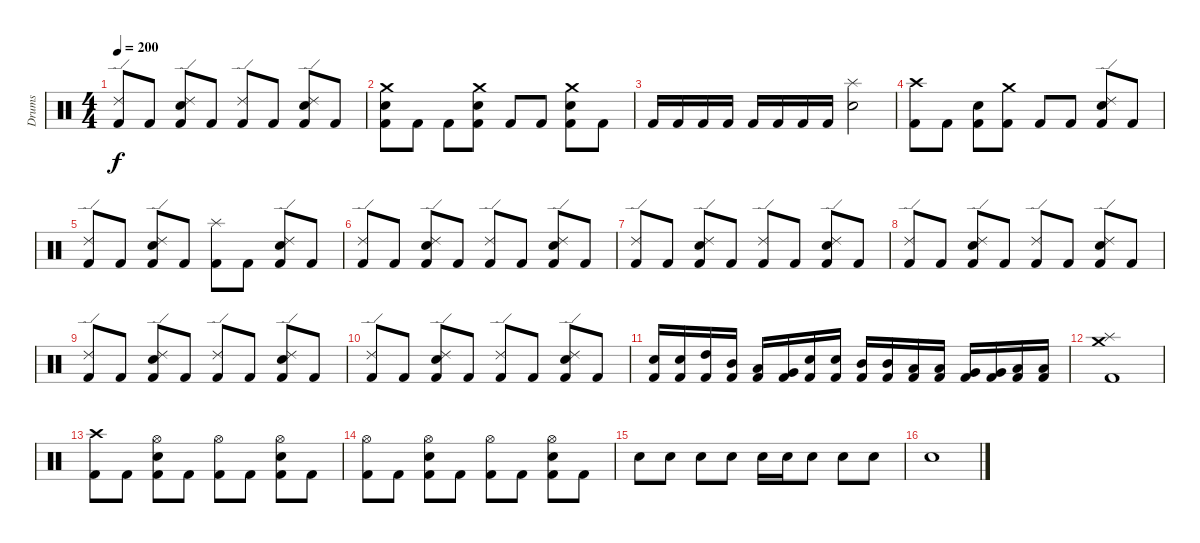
\track ("Drums" "Drums") {instrument percussion}
\staff {score}
\articulation defaults
\ts (4 4)
\tempo 200
\clef neutral
\ks c
("Kick (hit) 2" "Ride (edge) 2").8{dy f} "Kick (hit) 2".8 ("Kick (hit) 2" "Electric Snare (hit)" "Ride (edge) 2").8 "Kick (hit) 2".8 ("Kick (hit) 2" "Ride (edge) 2").8 "Kick (hit) 2".8 ("Kick (hit) 2" "Electric Snare (hit)" "Ride (edge) 2").8 "Kick (hit) 2".8 |
("Kick (hit) 2" "Electric Snare (hit)" "Crash medium (hit)").8 "Kick (hit) 2".8 "Kick (hit) 2".8 ("Kick (hit) 2" "Electric Snare (hit)" "Crash medium (hit)").8 "Kick (hit) 2".8 "Kick (hit) 2".8 ("Kick (hit) 2" "Electric Snare (hit)" "Crash medium (hit)").8 "Kick (hit) 2".8 |
"Kick (hit) 2".16 "Kick (hit) 2".16 "Kick (hit) 2".16 "Kick (hit) 2".16 "Kick (hit) 2".16 "Kick (hit) 2".16 "Kick (hit) 2".16 "Kick (hit) 2".16 ("Electric Snare (hit)" "Splash (hit)").2 |
("Kick (hit) 2" "Crash high (hit)").8 "Kick (hit) 2".8 ("Kick (hit) 2" "Electric Snare (hit)").8 ("Kick (hit) 2" "Crash medium (hit)").8 "Kick (hit) 2".8 "Kick (hit) 2".8 ("Kick (hit) 2" "Electric Snare (hit)" "Ride (edge) 2").8 "Kick (hit) 2".8 |
("Kick (hit) 2" "Ride (edge) 2").8 "Kick (hit) 2".8 ("Kick (hit) 2" "Electric Snare (hit)" "Ride (edge) 2").8 "Kick (hit) 2".8 ("Kick (hit) 2" "Splash (hit)").8 "Kick (hit) 2".8 ("Kick (hit) 2" "Electric Snare (hit)" "Ride (edge) 2").8 "Kick (hit) 2".8 |
("Kick (hit) 2" "Ride (edge) 2").8 "Kick (hit) 2".8 ("Kick (hit) 2" "Electric Snare (hit)" "Ride (edge) 2").8 "Kick (hit) 2".8 ("Kick (hit) 2" "Ride (edge) 2").8 "Kick (hit) 2".8 ("Kick (hit) 2" "Electric Snare (hit)" "Ride (edge) 2").8 "Kick (hit) 2".8 |
\section ("" "")
("Kick (hit) 2" "Ride (edge) 2").8 "Kick (hit) 2".8 ("Kick (hit) 2" "Electric Snare (hit)" "Ride (edge) 2").8 "Kick (hit) 2".8 ("Kick (hit) 2" "Ride (edge) 2").8 "Kick (hit) 2".8 ("Kick (hit) 2" "Electric Snare (hit)" "Ride (edge) 2").8 "Kick (hit) 2".8 |
("Kick (hit) 2" "Ride (edge) 2").8 "Kick (hit) 2".8 ("Kick (hit) 2" "Electric Snare (hit)" "Ride (edge) 2").8 "Kick (hit) 2".8 ("Kick (hit) 2" "Ride (edge) 2").8 "Kick (hit) 2".8 ("Kick (hit) 2" "Electric Snare (hit)" "Ride (edge) 2").8 "Kick (hit) 2".8 |
("Kick (hit) 2" "Ride (edge) 2").8 "Kick (hit) 2".8 ("Kick (hit) 2" "Electric Snare (hit)" "Ride (edge) 2").8 "Kick (hit) 2".8 ("Kick (hit) 2" "Ride (edge) 2").8 "Kick (hit) 2".8 ("Kick (hit) 2" "Electric Snare (hit)" "Ride (edge) 2").8 "Kick (hit) 2".8 |
("Kick (hit) 2" "Ride (edge) 2").8 "Kick (hit) 2".8 ("Kick (hit) 2" "Electric Snare (hit)" "Ride (edge) 2").8 "Kick (hit) 2".8 ("Kick (hit) 2" "Ride (edge) 2").8 "Kick (hit) 2".8 ("Kick (hit) 2" "Electric Snare (hit)" "Ride (edge) 2").8 "Kick (hit) 2".8 |
("Kick (hit) 2" "Electric Snare (hit)").16 ("Kick (hit) 2" "Electric Snare (hit)").16 ("Kick (hit) 2" "High Tom (hit)").16 ("Kick (hit) 2" "Mid Tom (hit)").16 ("Kick (hit) 2" "Low Tom (hit)").16 ("Kick (hit) 2" "Very Low Tom (hit)").16 ("Kick (hit) 2" "Electric Snare (hit)").16 ("Kick (hit) 2" "Electric Snare (hit)").16 ("Kick (hit) 2" "Mid Tom (hit)").16 ("Kick (hit) 2" "Mid Tom (hit)").16 ("Kick (hit) 2" "Low Tom (hit)").16 ("Kick (hit) 2" "Low Tom (hit)").16 ("Kick (hit) 2" "Very Low Tom (hit)").16 ("Kick (hit) 2" "Very Low Tom (hit)").16 ("Kick (hit) 2" "Low Floor Tom (hit)").16 ("Kick (hit) 2" "Low Floor Tom (hit)").16 |
("Kick (hit) 2" "Splash (hit)" "Crash medium (hit)").1 |
("Kick (hit) 2" "Crash high (hit)").8 "Kick (hit) 2".8 ("Kick (hit) 2" "Electric Snare (hit)" "Hi-Hat (open)").8 "Kick (hit) 2".8 ("Kick (hit) 2" "Hi-Hat (open)").8 "Kick (hit) 2".8 ("Kick (hit) 2" "Electric Snare (hit)" "Hi-Hat (open)").8 "Kick (hit) 2".8 |
("Kick (hit) 2" "Hi-Hat (open)").8 "Kick (hit) 2".8 ("Kick (hit) 2" "Electric Snare (hit)" "Hi-Hat (open)").8 "Kick (hit) 2".8 ("Kick (hit) 2" "Hi-Hat (open)").8 "Kick (hit) 2".8 ("Kick (hit) 2" "Electric Snare (hit)" "Hi-Hat (open)").8 "Kick (hit) 2".8 |
"Electric Snare (hit)".8 "Electric Snare (hit)".8 "Electric Snare (hit)".8 "Electric Snare (hit)".8 "Electric Snare (hit)".16 "Electric Snare (hit)".16 "Electric Snare (hit)".8 "Electric Snare (hit)".8 "Electric Snare (hit)".8 |
"Electric Snare (hit)".1
